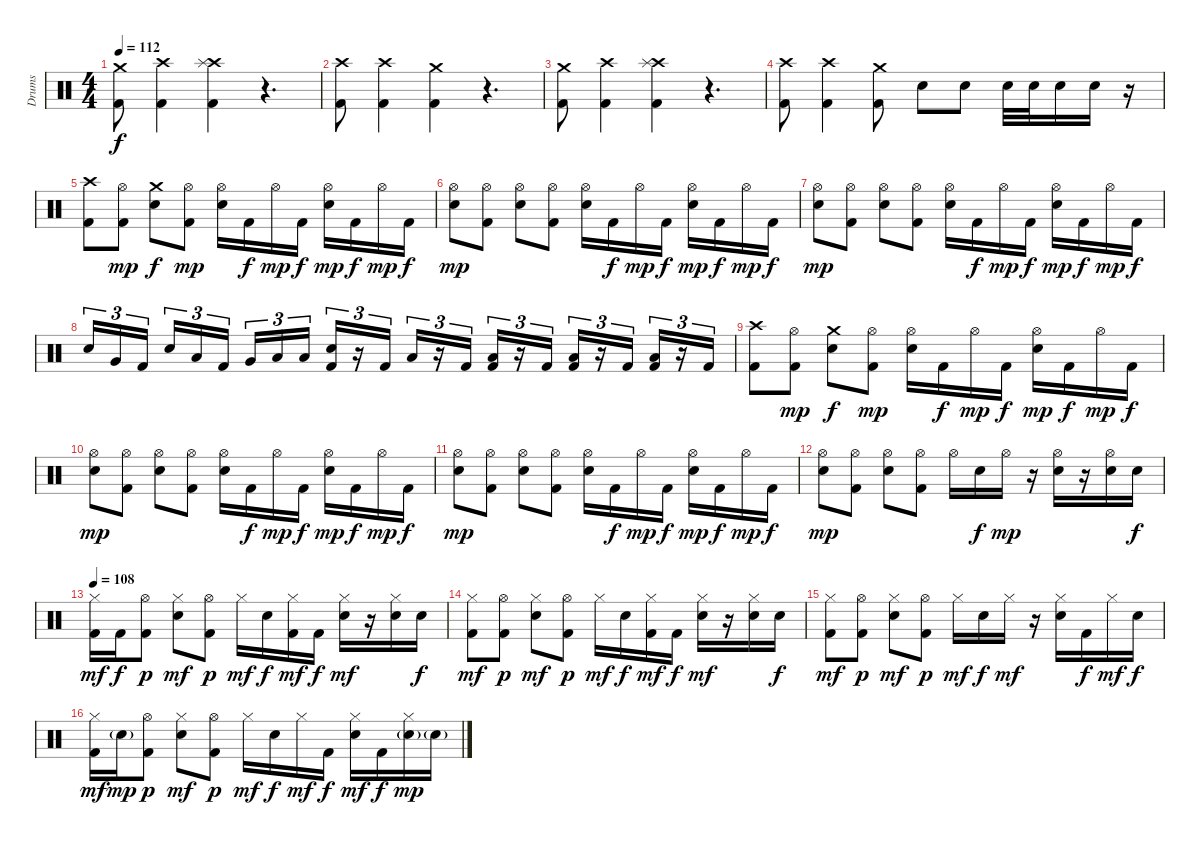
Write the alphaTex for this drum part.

\track ("Drums" "Drums") {instrument percussion}
\staff {score}
\articulation defaults
\ts (4 4)
\tempo 112
\clef neutral
\ks c
("Crash medium (hit)" "Kick (hit) 2").8{dy f} ("Crash high (hit)" "Kick (hit) 2").4 ("Crash high (hit)" "Splash (hit)" "Kick (hit) 2").4 r.4{d} |
("Crash high (hit)" "Kick (hit) 2").8 ("Crash high (hit)" "Kick (hit) 2").4 ("Crash medium (hit)" "Kick (hit) 2").4 r.4{d} |
("Crash medium (hit)" "Kick (hit) 2").8 ("Crash high (hit)" "Kick (hit) 2").4 ("Crash high (hit)" "Splash (hit)" "Kick (hit) 2").4 r.4{d} |
("Crash high (hit)" "Kick (hit) 2").8 ("Crash high (hit)" "Kick (hit) 2").4 ("Crash medium (hit)" "Kick (hit) 2").8 "Electric Snare (hit)".8 "Electric Snare (hit)".8 "Electric Snare (hit)".32 "Electric Snare (hit)".32 "Electric Snare (hit)".16 "Electric Snare (hit)".16 r.16 |
("Crash high (hit)" "Kick (hit) 2").8 ("Hi-Hat (open)" "Kick (hit) 2").8{dy mp} ("Crash medium (hit)" "Electric Snare (hit)").8{dy f} ("Hi-Hat (open)" "Kick (hit) 2").8{dy mp} ("Hi-Hat (open)" "Electric Snare (hit)").16 "Kick (hit) 2".16{dy f} "Hi-Hat (open)".16{dy mp} "Kick (hit) 2".16{dy f} ("Hi-Hat (open)" "Electric Snare (hit)").16{dy mp} "Kick (hit) 2".16{dy f} "Hi-Hat (open)".16{dy mp} "Kick (hit) 2".16{dy f} |
("Hi-Hat (open)" "Electric Snare (hit)").8{dy mp} ("Hi-Hat (open)" "Kick (hit) 2").8 ("Hi-Hat (open)" "Electric Snare (hit)").8 ("Hi-Hat (open)" "Kick (hit) 2").8 ("Hi-Hat (open)" "Electric Snare (hit)").16 "Kick (hit) 2".16{dy f} "Hi-Hat (open)".16{dy mp} "Kick (hit) 2".16{dy f} ("Hi-Hat (open)" "Electric Snare (hit)").16{dy mp} "Kick (hit) 2".16{dy f} "Hi-Hat (open)".16{dy mp} "Kick (hit) 2".16{dy f} |
("Hi-Hat (open)" "Electric Snare (hit)").8{dy mp} ("Hi-Hat (open)" "Kick (hit) 2").8 ("Hi-Hat (open)" "Electric Snare (hit)").8 ("Hi-Hat (open)" "Kick (hit) 2").8 ("Hi-Hat (open)" "Electric Snare (hit)").16 "Kick (hit) 2".16{dy f} "Hi-Hat (open)".16{dy mp} "Kick (hit) 2".16{dy f} ("Hi-Hat (open)" "Electric Snare (hit)").16{dy mp} "Kick (hit) 2".16{dy f} "Hi-Hat (open)".16{dy mp} "Kick (hit) 2".16{dy f} |
"Electric Snare (hit)".16{tu (3 2)} "Very Low Tom (hit)".16{tu (3 2)} "Kick (hit) 2".16{tu (3 2)} "Electric Snare (hit)".16{tu (3 2)} "Low Floor Tom (hit)".16{tu (3 2)} "Kick (hit) 2".16{tu (3 2)} "Very Low Tom (hit)".16{tu (3 2)} "Low Floor Tom (hit)".16{tu (3 2)} "Low Floor Tom (hit)".16{tu (3 2)} ("Electric Snare (hit)" "Kick (hit) 2").16{tu (3 2)} r.16{tu (3 2)} "Kick (hit) 2".16{tu (3 2)} "Low Floor Tom (hit)".16{tu (3 2)} r.16{tu (3 2)} "Kick (hit) 2".16{tu (3 2)} ("Low Floor Tom (hit)" "Kick (hit) 2").16{tu (3 2)} r.16{tu (3 2)} "Kick (hit) 2".16{tu (3 2)} ("Low Floor Tom (hit)" "Kick (hit) 2").16{tu (3 2)} r.16{tu (3 2)} "Kick (hit) 2".16{tu (3 2)} ("Low Floor Tom (hit)" "Kick (hit) 2").16{tu (3 2)} r.16{tu (3 2)} "Kick (hit) 2".16{tu (3 2)} |
("Crash high (hit)" "Kick (hit) 2").8 ("Hi-Hat (open)" "Kick (hit) 2").8{dy mp} ("Crash medium (hit)" "Electric Snare (hit)").8{dy f} ("Hi-Hat (open)" "Kick (hit) 2").8{dy mp} ("Hi-Hat (open)" "Electric Snare (hit)").16 "Kick (hit) 2".16{dy f} "Hi-Hat (open)".16{dy mp} "Kick (hit) 2".16{dy f} ("Hi-Hat (open)" "Electric Snare (hit)").16{dy mp} "Kick (hit) 2".16{dy f} "Hi-Hat (open)".16{dy mp} "Kick (hit) 2".16{dy f} |
("Hi-Hat (open)" "Electric Snare (hit)").8{dy mp} ("Hi-Hat (open)" "Kick (hit) 2").8 ("Hi-Hat (open)" "Electric Snare (hit)").8 ("Hi-Hat (open)" "Kick (hit) 2").8 ("Hi-Hat (open)" "Electric Snare (hit)").16 "Kick (hit) 2".16{dy f} "Hi-Hat (open)".16{dy mp} "Kick (hit) 2".16{dy f} ("Hi-Hat (open)" "Electric Snare (hit)").16{dy mp} "Kick (hit) 2".16{dy f} "Hi-Hat (open)".16{dy mp} "Kick (hit) 2".16{dy f} |
("Hi-Hat (open)" "Electric Snare (hit)").8{dy mp} ("Hi-Hat (open)" "Kick (hit) 2").8 ("Hi-Hat (open)" "Electric Snare (hit)").8 ("Hi-Hat (open)" "Kick (hit) 2").8 ("Hi-Hat (open)" "Electric Snare (hit)").16 "Kick (hit) 2".16{dy f} "Hi-Hat (open)".16{dy mp} "Kick (hit) 2".16{dy f} ("Hi-Hat (open)" "Electric Snare (hit)").16{dy mp} "Kick (hit) 2".16{dy f} "Hi-Hat (open)".16{dy mp} "Kick (hit) 2".16{dy f} |
("Hi-Hat (open)" "Electric Snare (hit)").8{dy mp} ("Hi-Hat (open)" "Kick (hit) 2").8 ("Hi-Hat (open)" "Electric Snare (hit)").8 ("Hi-Hat (open)" "Kick (hit) 2").8 "Hi-Hat (open)".16 "Electric Snare (hit)".16{dy f} "Hi-Hat (open)".16{dy mp} r.16 ("Hi-Hat (open)" "Electric Snare (hit)").16 r.16 ("Hi-Hat (open)" "Electric Snare (hit)").16 "Electric Snare (hit)".16{dy f} |
\tempo 108
("Hi-Hat (closed)" "Kick (hit) 2").16{dy mf} "Kick (hit) 2".16{dy f} ("Hi-Hat (open)" "Kick (hit) 2").8{dy p} ("Hi-Hat (closed)" "Electric Snare (hit)").8{dy mf} ("Hi-Hat (open)" "Kick (hit) 2").8{dy p} "Hi-Hat (closed)".16{dy mf} "Electric Snare (hit)".16{dy f} ("Hi-Hat (closed)" "Kick (hit) 2").16{dy mf} "Kick (hit) 2".16{dy f} ("Hi-Hat (closed)" "Electric Snare (hit)").16{dy mf} r.16 ("Hi-Hat (closed)" "Electric Snare (hit)").16 "Electric Snare (hit)".16{dy f} |
("Hi-Hat (closed)" "Kick (hit) 2").8{dy mf} ("Hi-Hat (open)" "Kick (hit) 2").8{dy p} ("Hi-Hat (closed)" "Electric Snare (hit)").8{dy mf} ("Hi-Hat (open)" "Kick (hit) 2").8{dy p} "Hi-Hat (closed)".16{dy mf} "Electric Snare (hit)".16{dy f} ("Hi-Hat (closed)" "Kick (hit) 2").16{dy mf} "Kick (hit) 2".16{dy f} ("Hi-Hat (closed)" "Electric Snare (hit)").16{dy mf} r.16 ("Hi-Hat (closed)" "Electric Snare (hit)").16 "Electric Snare (hit)".16{dy f} |
("Hi-Hat (closed)" "Kick (hit) 2").8{dy mf} ("Hi-Hat (open)" "Kick (hit) 2").8{dy p} ("Hi-Hat (closed)" "Electric Snare (hit)").8{dy mf} ("Hi-Hat (open)" "Kick (hit) 2").8{dy p} "Hi-Hat (closed)".16{dy mf} "Electric Snare (hit)".16{dy f} "Hi-Hat (closed)".16{dy mf} r.16 ("Hi-Hat (closed)" "Electric Snare (hit)").16 "Kick (hit) 2".16{dy f} "Hi-Hat (closed)".16{dy mf} "Electric Snare (hit)".16{dy f} |
("Hi-Hat (closed)" "Kick (hit) 2").16{dy mf} "Electric Snare (hit)"{g}.16{dy mp} ("Hi-Hat (open)" "Kick (hit) 2").8{dy p} ("Hi-Hat (closed)" "Electric Snare (hit)").8{dy mf} ("Hi-Hat (open)" "Kick (hit) 2").8{dy p} "Hi-Hat (closed)".16{dy mf} "Electric Snare (hit)".16{dy f} "Hi-Hat (closed)".16{dy mf} "Kick (hit) 2".16{dy f} ("Hi-Hat (closed)" "Electric Snare (hit)").16{dy mf} "Kick (hit) 2".16{dy f} ("Hi-Hat (closed)" "Electric Snare (hit)"{g}).16{dy mp} "Electric Snare (hit)"{g}.16
